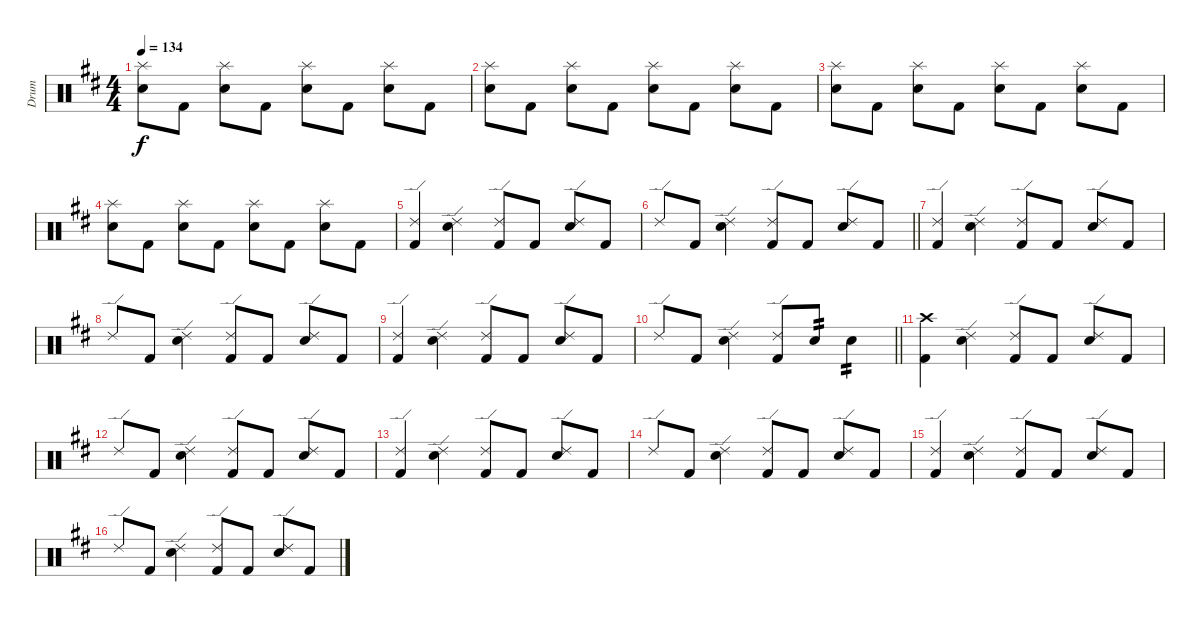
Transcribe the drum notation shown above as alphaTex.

\track ("Drum" "Drum") {instrument percussion}
\staff {score}
\articulation defaults
\ts (4 4)
\tempo 134
\clef neutral
\ks d
("Electric Snare (hit)" "Splash (hit)").8{dy f} "Kick (hit) 2".8 ("Electric Snare (hit)" "Splash (hit)").8 "Kick (hit) 2".8 ("Electric Snare (hit)" "Splash (hit)").8 "Kick (hit) 2".8 ("Electric Snare (hit)" "Splash (hit)").8 "Kick (hit) 2".8 |
("Electric Snare (hit)" "Splash (hit)").8 "Kick (hit) 2".8 ("Electric Snare (hit)" "Splash (hit)").8 "Kick (hit) 2".8 ("Electric Snare (hit)" "Splash (hit)").8 "Kick (hit) 2".8 ("Electric Snare (hit)" "Splash (hit)").8 "Kick (hit) 2".8 |
("Electric Snare (hit)" "Splash (hit)").8 "Kick (hit) 2".8 ("Electric Snare (hit)" "Splash (hit)").8 "Kick (hit) 2".8 ("Electric Snare (hit)" "Splash (hit)").8 "Kick (hit) 2".8 ("Electric Snare (hit)" "Splash (hit)").8 "Kick (hit) 2".8 |
("Electric Snare (hit)" "Splash (hit)").8 "Kick (hit) 2".8 ("Electric Snare (hit)" "Splash (hit)").8 "Kick (hit) 2".8 ("Electric Snare (hit)" "Splash (hit)").8 "Kick (hit) 2".8 ("Electric Snare (hit)" "Splash (hit)").8 "Kick (hit) 2".8 |
("Kick (hit) 2" "Ride (edge) 2").4 ("Electric Snare (hit)" "Ride (edge) 2").4 ("Ride (edge) 2" "Kick (hit) 2").8 "Kick (hit) 2".8 ("Electric Snare (hit)" "Ride (edge) 2").8 "Kick (hit) 2".8 |
\barLineRight lightlight "Ride (edge) 2".8 "Kick (hit) 2".8
("Electric Snare (hit)" "Ride (edge) 2").4 ("Kick (hit) 2" "Ride (edge) 2").8 "Kick (hit) 2".8 ("Ride (edge) 2" "Electric Snare (hit)").8 "Kick (hit) 2".8 |
("Kick (hit) 2" "Ride (edge) 2").4 ("Electric Snare (hit)" "Ride (edge) 2").4 ("Ride (edge) 2" "Kick (hit) 2").8 "Kick (hit) 2".8 ("Electric Snare (hit)" "Ride (edge) 2").8 "Kick (hit) 2".8 |
"Ride (edge) 2".8 "Kick (hit) 2".8 ("Electric Snare (hit)" "Ride (edge) 2").4 ("Kick (hit) 2" "Ride (edge) 2").8 "Kick (hit) 2".8 ("Ride (edge) 2" "Electric Snare (hit)").8 "Kick (hit) 2".8 |
("Kick (hit) 2" "Ride (edge) 2").4 ("Electric Snare (hit)" "Ride (edge) 2").4 ("Ride (edge) 2" "Kick (hit) 2").8 "Kick (hit) 2".8 ("Electric Snare (hit)" "Ride (edge) 2").8 "Kick (hit) 2".8 |
\barLineRight lightlight "Ride (edge) 2".8 "Kick (hit) 2".8
("Electric Snare (hit)" "Ride (edge) 2").4 ("Kick (hit) 2" "Ride (edge) 2").8 "Electric Snare (hit)".8{tp 2} "Electric Snare (hit)".4{tp 2} |
("Kick (hit) 2" "Crash high (hit)").4 ("Electric Snare (hit)" "Ride (edge) 2").4 ("Ride (edge) 2" "Kick (hit) 2").8 "Kick (hit) 2".8 ("Electric Snare (hit)" "Ride (edge) 2").8 "Kick (hit) 2".8 |
"Ride (edge) 2".8 "Kick (hit) 2".8 ("Electric Snare (hit)" "Ride (edge) 2").4 ("Kick (hit) 2" "Ride (edge) 2").8 "Kick (hit) 2".8 ("Ride (edge) 2" "Electric Snare (hit)").8 "Kick (hit) 2".8 |
("Kick (hit) 2" "Ride (edge) 2").4 ("Electric Snare (hit)" "Ride (edge) 2").4 ("Ride (edge) 2" "Kick (hit) 2").8 "Kick (hit) 2".8 ("Electric Snare (hit)" "Ride (edge) 2").8 "Kick (hit) 2".8 |
"Ride (edge) 2".8 "Kick (hit) 2".8 ("Electric Snare (hit)" "Ride (edge) 2").4 ("Kick (hit) 2" "Ride (edge) 2").8 "Kick (hit) 2".8 ("Ride (edge) 2" "Electric Snare (hit)").8 "Kick (hit) 2".8 |
("Kick (hit) 2" "Ride (edge) 2").4 ("Electric Snare (hit)" "Ride (edge) 2").4 ("Ride (edge) 2" "Kick (hit) 2").8 "Kick (hit) 2".8 ("Electric Snare (hit)" "Ride (edge) 2").8 "Kick (hit) 2".8 |
"Ride (edge) 2".8 "Kick (hit) 2".8 ("Electric Snare (hit)" "Ride (edge) 2").4 ("Kick (hit) 2" "Ride (edge) 2").8 "Kick (hit) 2".8 ("Ride (edge) 2" "Electric Snare (hit)").8 "Kick (hit) 2".8
